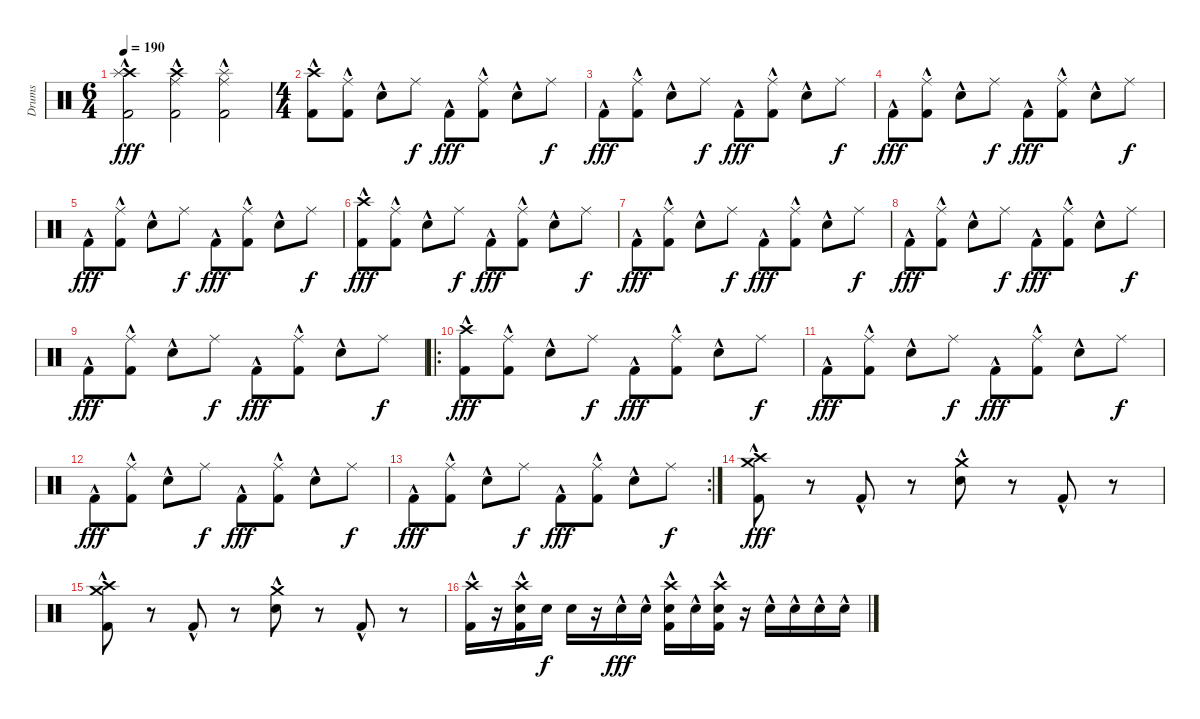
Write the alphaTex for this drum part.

\track ("Drums" "Drums") {instrument percussion}
\staff {score}
\articulation defaults
\ts (6 4)
\tempo 190
\clef neutral
\ks c
("Crash high (hit)" "Splash (hit)" "Kick (hit) 2"{hac}).2{dy fff} ("Crash high (hit)" "Ride (middle)" "Kick (hit) 2"{hac}).2 ("Splash (hit)" "Ride (middle)" "Kick (hit) 2"{hac}).2 |
\ts (4 4)
("Crash high (hit)" "Kick (hit) 2"{hac}).8 ("Ride (middle)" "Kick (hit) 2"{hac}).8 "Snare (hit) 2"{hac}.8 "Ride (middle)".8{dy f} "Kick (hit) 2"{hac}.8{dy fff} ("Ride (middle)" "Kick (hit) 2"{hac}).8 "Snare (hit) 2"{hac}.8 "Ride (middle)".8{dy f} |
"Kick (hit) 2"{hac}.8{dy fff} ("Ride (middle)" "Kick (hit) 2"{hac}).8 "Snare (hit) 2"{hac}.8 "Ride (middle)".8{dy f} "Kick (hit) 2"{hac}.8{dy fff} ("Ride (middle)" "Kick (hit) 2"{hac}).8 "Snare (hit) 2"{hac}.8 "Ride (middle)".8{dy f} |
"Kick (hit) 2"{hac}.8{dy fff} ("Ride (middle)" "Kick (hit) 2"{hac}).8 "Snare (hit) 2"{hac}.8 "Ride (middle)".8{dy f} "Kick (hit) 2"{hac}.8{dy fff} ("Ride (middle)" "Kick (hit) 2"{hac}).8 "Snare (hit) 2"{hac}.8 "Ride (middle)".8{dy f} |
"Kick (hit) 2"{hac}.8{dy fff} ("Ride (middle)" "Kick (hit) 2"{hac}).8 "Snare (hit) 2"{hac}.8 "Ride (middle)".8{dy f} "Kick (hit) 2"{hac}.8{dy fff} ("Ride (middle)" "Kick (hit) 2"{hac}).8 "Snare (hit) 2"{hac}.8 "Ride (middle)".8{dy f} |
("Crash high (hit)" "Kick (hit) 2"{hac}).8{dy fff} ("Ride (middle)" "Kick (hit) 2"{hac}).8 "Snare (hit) 2"{hac}.8 "Ride (middle)".8{dy f} "Kick (hit) 2"{hac}.8{dy fff} ("Ride (middle)" "Kick (hit) 2"{hac}).8 "Snare (hit) 2"{hac}.8 "Ride (middle)".8{dy f} |
"Kick (hit) 2"{hac}.8{dy fff} ("Ride (middle)" "Kick (hit) 2"{hac}).8 "Snare (hit) 2"{hac}.8 "Ride (middle)".8{dy f} "Kick (hit) 2"{hac}.8{dy fff} ("Ride (middle)" "Kick (hit) 2"{hac}).8 "Snare (hit) 2"{hac}.8 "Ride (middle)".8{dy f} |
"Kick (hit) 2"{hac}.8{dy fff} ("Ride (middle)" "Kick (hit) 2"{hac}).8 "Snare (hit) 2"{hac}.8 "Ride (middle)".8{dy f} "Kick (hit) 2"{hac}.8{dy fff} ("Ride (middle)" "Kick (hit) 2"{hac}).8 "Snare (hit) 2"{hac}.8 "Ride (middle)".8{dy f} |
"Kick (hit) 2"{hac}.8{dy fff} ("Ride (middle)" "Kick (hit) 2"{hac}).8 "Snare (hit) 2"{hac}.8 "Ride (middle)".8{dy f} "Kick (hit) 2"{hac}.8{dy fff} ("Ride (middle)" "Kick (hit) 2"{hac}).8 "Snare (hit) 2"{hac}.8 "Ride (middle)".8{dy f} |
\ro
("Crash high (hit)" "Kick (hit) 2"{hac}).8{dy fff} ("Ride (middle)" "Kick (hit) 2"{hac}).8 "Snare (hit) 2"{hac}.8 "Ride (middle)".8{dy f} "Kick (hit) 2"{hac}.8{dy fff} ("Ride (middle)" "Kick (hit) 2"{hac}).8 "Snare (hit) 2"{hac}.8 "Ride (middle)".8{dy f} |
"Kick (hit) 2"{hac}.8{dy fff} ("Ride (middle)" "Kick (hit) 2"{hac}).8 "Snare (hit) 2"{hac}.8 "Ride (middle)".8{dy f} "Kick (hit) 2"{hac}.8{dy fff} ("Ride (middle)" "Kick (hit) 2"{hac}).8 "Snare (hit) 2"{hac}.8 "Ride (middle)".8{dy f} |
"Kick (hit) 2"{hac}.8{dy fff} ("Ride (middle)" "Kick (hit) 2"{hac}).8 "Snare (hit) 2"{hac}.8 "Ride (middle)".8{dy f} "Kick (hit) 2"{hac}.8{dy fff} ("Ride (middle)" "Kick (hit) 2"{hac}).8 "Snare (hit) 2"{hac}.8 "Ride (middle)".8{dy f} |
\rc 2 "Kick (hit) 2"{hac}.8{dy fff}
("Ride (middle)" "Kick (hit) 2"{hac}).8 "Snare (hit) 2"{hac}.8 "Ride (middle)".8{dy f} "Kick (hit) 2"{hac}.8{dy fff} ("Ride (middle)" "Kick (hit) 2"{hac}).8 "Snare (hit) 2"{hac}.8 "Ride (middle)".8{dy f} |
("Crash high (hit)" "Crash medium (hit)" "Kick (hit) 2"{hac}).8{dy fff} r.8 "Kick (hit) 2"{hac}.8 r.8 ("Crash medium (hit)" "Snare (hit) 2"{hac}).8 r.8 "Kick (hit) 2"{hac}.8 r.8 |
("Crash high (hit)" "Crash medium (hit)" "Kick (hit) 2"{hac}).8 r.8 "Kick (hit) 2"{hac}.8 r.8 ("Crash medium (hit)" "Snare (hit) 2"{hac}).8 r.8 "Kick (hit) 2"{hac}.8 r.8 |
("Crash high (hit)" "Kick (hit) 2"{hac}).16 r.16 ("Crash high (hit)" "Snare (hit) 2" "Kick (hit) 2"{hac}).16 "Snare (hit) 2".16{dy f} "Snare (hit) 2".16 r.16 "Snare (hit) 2"{hac}.16{dy fff} "Snare (hit) 2"{hac}.16 ("Crash high (hit)" "Snare (hit) 2"{hac} "Kick (hit) 2"{hac}).16 "Snare (hit) 2"{hac}.16 ("Crash high (hit)" "Snare (hit) 2"{hac} "Kick (hit) 2").16 r.16 "Snare (hit) 2"{hac}.16 "Snare (hit) 2"{hac}.16 "Snare (hit) 2"{hac}.16 "Snare (hit) 2"{hac}.16
